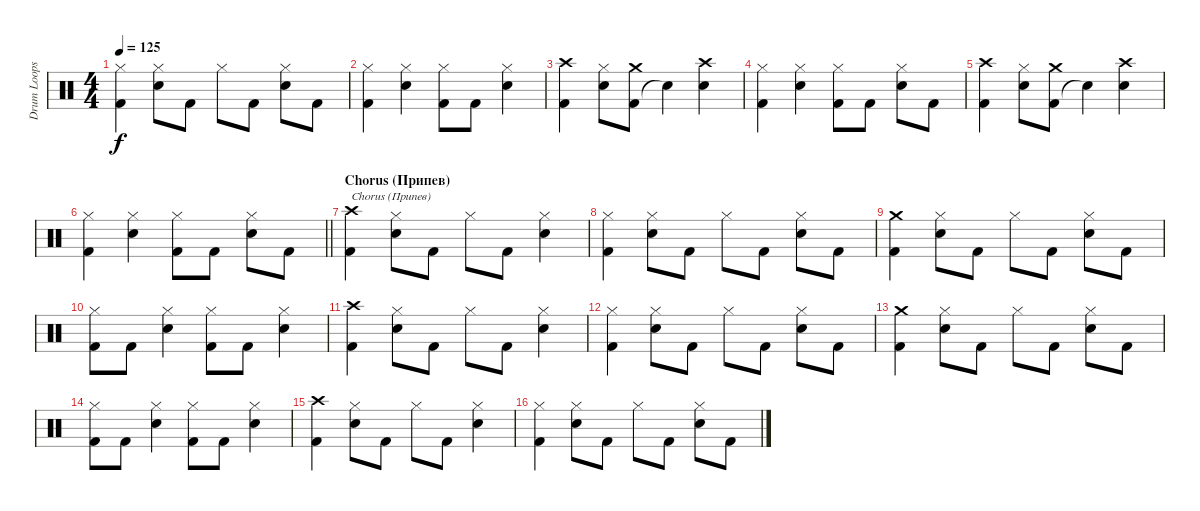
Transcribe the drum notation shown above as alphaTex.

\track ("Drum Loops (Дурачок)" "Drum Loops") {instrument percussion}
\staff {score}
\articulation defaults
\ts (4 4)
\tempo 125
\clef neutral
\ks c
("Kick (hit) 2" "Hi-Hat (closed)").4{dy f} ("Snare (hit) 2" "Hi-Hat (closed)").8 "Kick (hit) 2".8 "Hi-Hat (closed)".8 "Kick (hit) 2".8 ("Snare (hit) 2" "Hi-Hat (closed)").8 "Kick (hit) 2".8 |
("Kick (hit) 2" "Hi-Hat (closed)").4 ("Snare (hit) 2" "Hi-Hat (closed)").4 ("Kick (hit) 2" "Hi-Hat (closed)").8 "Kick (hit) 2".8 ("Snare (hit) 2" "Hi-Hat (closed)").4 |
("Kick (hit) 2" "Crash high (hit)").4 ("Snare (hit) 2" "Hi-Hat (closed)").8 ("Kick (hit) 2" "Crash medium (hit)").8 "Snare (hit)"{t}.4 ("Snare (hit) 2" "Crash high (hit)").4 |
("Kick (hit) 2" "Hi-Hat (closed)").4 ("Snare (hit) 2" "Hi-Hat (closed)").4 ("Kick (hit) 2" "Hi-Hat (closed)").8 "Kick (hit) 2".8 ("Snare (hit) 2" "Hi-Hat (closed)").8 "Kick (hit) 2".8 |
("Kick (hit) 2" "Crash high (hit)").4 ("Snare (hit) 2" "Hi-Hat (closed)").8 ("Kick (hit) 2" "Crash medium (hit)").8 "Snare (hit)"{t}.4 ("Snare (hit) 2" "Crash high (hit)").4 |
\barLineRight lightlight
("Kick (hit) 2" "Hi-Hat (closed)").4 ("Snare (hit) 2" "Hi-Hat (closed)").4 ("Kick (hit) 2" "Hi-Hat (closed)").8 "Kick (hit) 2".8 ("Snare (hit) 2" "Hi-Hat (closed)").8 "Kick (hit) 2".8 |
\section ("" "Chorus (Припев)")
("Kick (hit) 2" "Crash high (hit)").4{txt "Chorus (Припев)"} ("Snare (hit) 2" "Hi-Hat (closed)").8 "Kick (hit) 2".8 "Hi-Hat (closed)".8 "Kick (hit) 2".8 ("Snare (hit) 2" "Hi-Hat (closed)").4 |
("Kick (hit) 2" "Hi-Hat (closed)").4 ("Snare (hit) 2" "Hi-Hat (closed)").8 "Kick (hit) 2".8 "Hi-Hat (closed)".8 "Kick (hit) 2".8 ("Snare (hit) 2" "Hi-Hat (closed)").8 "Kick (hit) 2".8 |
("Kick (hit) 2" "Crash medium (hit)").4 ("Snare (hit) 2" "Hi-Hat (closed)").8 "Kick (hit) 2".8 "Hi-Hat (closed)".8 "Kick (hit) 2".8 ("Snare (hit) 2" "Hi-Hat (closed)").8 "Kick (hit) 2".8 |
("Kick (hit) 2" "Hi-Hat (closed)").8 "Kick (hit) 2".8 ("Snare (hit) 2" "Hi-Hat (closed)").4 ("Kick (hit) 2" "Hi-Hat (closed)").8 "Kick (hit) 2".8 ("Snare (hit) 2" "Hi-Hat (closed)").4 |
("Kick (hit) 2" "Crash high (hit)").4 ("Snare (hit) 2" "Hi-Hat (closed)").8 "Kick (hit) 2".8 "Hi-Hat (closed)".8 "Kick (hit) 2".8 ("Snare (hit) 2" "Hi-Hat (closed)").4 |
("Kick (hit) 2" "Hi-Hat (closed)").4 ("Snare (hit) 2" "Hi-Hat (closed)").8 "Kick (hit) 2".8 "Hi-Hat (closed)".8 "Kick (hit) 2".8 ("Snare (hit) 2" "Hi-Hat (closed)").8 "Kick (hit) 2".8 |
("Kick (hit) 2" "Crash medium (hit)").4 ("Snare (hit) 2" "Hi-Hat (closed)").8 "Kick (hit) 2".8 "Hi-Hat (closed)".8 "Kick (hit) 2".8 ("Snare (hit) 2" "Hi-Hat (closed)").8 "Kick (hit) 2".8 |
("Kick (hit) 2" "Hi-Hat (closed)").8 "Kick (hit) 2".8 ("Snare (hit) 2" "Hi-Hat (closed)").4 ("Kick (hit) 2" "Hi-Hat (closed)").8 "Kick (hit) 2".8 ("Snare (hit) 2" "Hi-Hat (closed)").4 |
("Kick (hit) 2" "Crash high (hit)").4 ("Snare (hit) 2" "Hi-Hat (closed)").8 "Kick (hit) 2".8 "Hi-Hat (closed)".8 "Kick (hit) 2".8 ("Snare (hit) 2" "Hi-Hat (closed)").4 |
("Kick (hit) 2" "Hi-Hat (closed)").4 ("Snare (hit) 2" "Hi-Hat (closed)").8 "Kick (hit) 2".8 "Hi-Hat (closed)".8 "Kick (hit) 2".8 ("Snare (hit) 2" "Hi-Hat (closed)").8 "Kick (hit) 2".8
